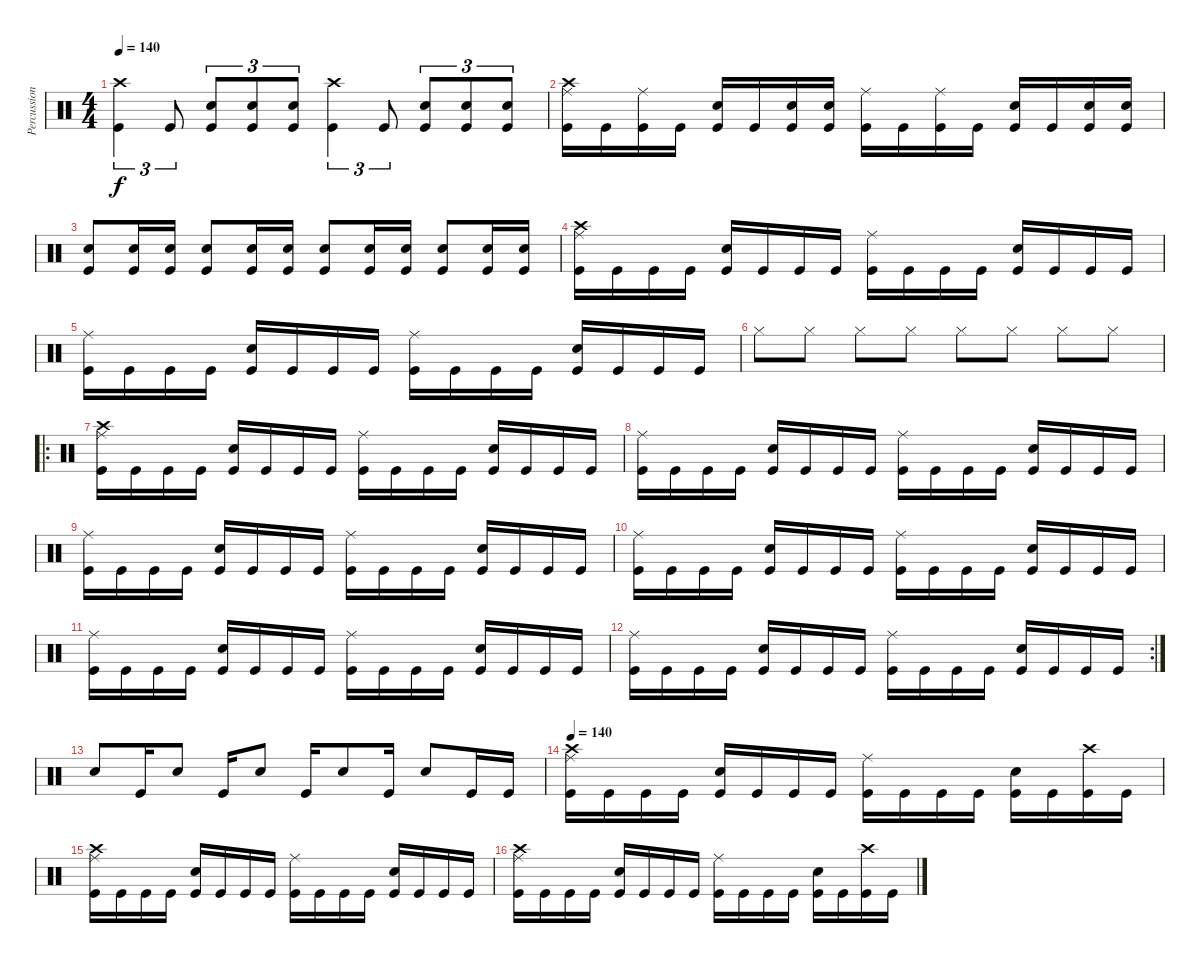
\track ("Percussion" "Percussion") {instrument percussion}
\staff {score}
\articulation defaults
\ts (4 4)
\tempo 140
\clef neutral
\ks c
("Crash high (hit)" "Kick (hit)").4{tu (3 2) dy f} "Kick (hit)".8{tu (3 2)} ("Snare (hit) 2" "Kick (hit)").8{tu (3 2)} ("Snare (hit) 2" "Kick (hit)").8{tu (3 2)} ("Snare (hit) 2" "Kick (hit)").8{tu (3 2)} ("Crash high (hit)" "Kick (hit)").4{tu (3 2)} "Kick (hit)".8{tu (3 2)} ("Snare (hit) 2" "Kick (hit)").8{tu (3 2)} ("Snare (hit) 2" "Kick (hit)").8{tu (3 2)} ("Snare (hit) 2" "Kick (hit)").8{tu (3 2)} |
("Ride (middle)" "Crash high (hit)" "Kick (hit)").16 "Kick (hit)".16 ("Ride (middle)" "Kick (hit)").16 "Kick (hit)".16 ("Snare (hit) 2" "Kick (hit)").16 "Kick (hit)".16 ("Snare (hit) 2" "Kick (hit)").16 ("Snare (hit) 2" "Kick (hit)").16 ("Ride (middle)" "Kick (hit)").16 "Kick (hit)".16 ("Ride (middle)" "Kick (hit)").16 "Kick (hit)".16 ("Snare (hit) 2" "Kick (hit)").16 "Kick (hit)".16 ("Snare (hit) 2" "Kick (hit)").16 ("Snare (hit) 2" "Kick (hit)").16 |
("Snare (hit) 2" "Kick (hit)").8 ("Snare (hit) 2" "Kick (hit)").16 ("Snare (hit) 2" "Kick (hit)").16 ("Snare (hit) 2" "Kick (hit)").8 ("Snare (hit) 2" "Kick (hit)").16 ("Snare (hit) 2" "Kick (hit)").16 ("Snare (hit) 2" "Kick (hit)").8 ("Snare (hit) 2" "Kick (hit)").16 ("Snare (hit) 2" "Kick (hit)").16 ("Snare (hit) 2" "Kick (hit)").8 ("Snare (hit) 2" "Kick (hit)").16 ("Snare (hit) 2" "Kick (hit)").16 |
("Ride (middle)" "Crash high (hit)" "Kick (hit)").16 "Kick (hit)".16 "Kick (hit)".16 "Kick (hit)".16 ("Snare (hit) 2" "Kick (hit)").16 "Kick (hit)".16 "Kick (hit)".16 "Kick (hit)".16 ("Ride (middle)" "Kick (hit)").16 "Kick (hit)".16 "Kick (hit)".16 "Kick (hit)".16 ("Snare (hit) 2" "Kick (hit)").16 "Kick (hit)".16 "Kick (hit)".16 "Kick (hit)".16 |
("Ride (middle)" "Kick (hit)").16 "Kick (hit)".16 "Kick (hit)".16 "Kick (hit)".16 ("Snare (hit) 2" "Kick (hit)").16 "Kick (hit)".16 "Kick (hit)".16 "Kick (hit)".16 ("Ride (middle)" "Kick (hit)").16 "Kick (hit)".16 "Kick (hit)".16 "Kick (hit)".16 ("Snare (hit) 2" "Kick (hit)").16 "Kick (hit)".16 "Kick (hit)".16 "Kick (hit)".16 |
"Hi-Hat (closed)".8 "Hi-Hat (closed)".8 "Hi-Hat (closed)".8 "Hi-Hat (closed)".8 "Hi-Hat (closed)".8 "Hi-Hat (closed)".8 "Hi-Hat (closed)".8 "Hi-Hat (closed)".8 |
\ro
("Ride (middle)" "Crash high (hit)" "Kick (hit)").16 "Kick (hit)".16 "Kick (hit)".16 "Kick (hit)".16 ("Snare (hit) 2" "Kick (hit)").16 "Kick (hit)".16 "Kick (hit)".16 "Kick (hit)".16 ("Ride (middle)" "Kick (hit)").16 "Kick (hit)".16 "Kick (hit)".16 "Kick (hit)".16 ("Snare (hit) 2" "Kick (hit)").16 "Kick (hit)".16 "Kick (hit)".16 "Kick (hit)".16 |
("Ride (middle)" "Kick (hit)").16 "Kick (hit)".16 "Kick (hit)".16 "Kick (hit)".16 ("Snare (hit) 2" "Kick (hit)").16 "Kick (hit)".16 "Kick (hit)".16 "Kick (hit)".16 ("Ride (middle)" "Kick (hit)").16 "Kick (hit)".16 "Kick (hit)".16 "Kick (hit)".16 ("Snare (hit) 2" "Kick (hit)").16 "Kick (hit)".16 "Kick (hit)".16 "Kick (hit)".16 |
("Ride (middle)" "Kick (hit)").16 "Kick (hit)".16 "Kick (hit)".16 "Kick (hit)".16 ("Snare (hit) 2" "Kick (hit)").16 "Kick (hit)".16 "Kick (hit)".16 "Kick (hit)".16 ("Ride (middle)" "Kick (hit)").16 "Kick (hit)".16 "Kick (hit)".16 "Kick (hit)".16 ("Snare (hit) 2" "Kick (hit)").16 "Kick (hit)".16 "Kick (hit)".16 "Kick (hit)".16 |
("Ride (middle)" "Kick (hit)").16 "Kick (hit)".16 "Kick (hit)".16 "Kick (hit)".16 ("Snare (hit) 2" "Kick (hit)").16 "Kick (hit)".16 "Kick (hit)".16 "Kick (hit)".16 ("Ride (middle)" "Kick (hit)").16 "Kick (hit)".16 "Kick (hit)".16 "Kick (hit)".16 ("Snare (hit) 2" "Kick (hit)").16 "Kick (hit)".16 "Kick (hit)".16 "Kick (hit)".16 |
("Ride (middle)" "Kick (hit)").16 "Kick (hit)".16 "Kick (hit)".16 "Kick (hit)".16 ("Snare (hit) 2" "Kick (hit)").16 "Kick (hit)".16 "Kick (hit)".16 "Kick (hit)".16 ("Ride (middle)" "Kick (hit)").16 "Kick (hit)".16 "Kick (hit)".16 "Kick (hit)".16 ("Snare (hit) 2" "Kick (hit)").16 "Kick (hit)".16 "Kick (hit)".16 "Kick (hit)".16 |
\rc 2
("Ride (middle)" "Kick (hit)").16 "Kick (hit)".16 "Kick (hit)".16 "Kick (hit)".16 ("Snare (hit) 2" "Kick (hit)").16 "Kick (hit)".16 "Kick (hit)".16 "Kick (hit)".16 ("Ride (middle)" "Kick (hit)").16 "Kick (hit)".16 "Kick (hit)".16 "Kick (hit)".16 ("Snare (hit) 2" "Kick (hit)").16 "Kick (hit)".16 "Kick (hit)".16 "Kick (hit)".16 |
"Snare (hit) 2".8 "Kick (hit)".16 "Snare (hit) 2".8 "Kick (hit)".16 "Snare (hit) 2".8 "Kick (hit)".16 "Snare (hit) 2".8 "Kick (hit)".16 "Snare (hit) 2".8 "Kick (hit)".16 "Kick (hit)".16 |
\tempo 140
("Ride (middle)" "Crash high (hit)" "Kick (hit)").16 "Kick (hit)".16 "Kick (hit)".16 "Kick (hit)".16 ("Snare (hit) 2" "Kick (hit)").16 "Kick (hit)".16 "Kick (hit)".16 "Kick (hit)".16 ("Ride (middle)" "Kick (hit)").16 "Kick (hit)".16 "Kick (hit)".16 "Kick (hit)".16 ("Snare (hit) 2" "Kick (hit)").16 "Kick (hit)".16 ("Crash high (hit)" "Kick (hit)").16 "Kick (hit)".16 |
("Ride (middle)" "Crash high (hit)" "Kick (hit)").16 "Kick (hit)".16 "Kick (hit)".16 "Kick (hit)".16 ("Snare (hit) 2" "Kick (hit)").16 "Kick (hit)".16 "Kick (hit)".16 "Kick (hit)".16 ("Ride (middle)" "Kick (hit)").16 "Kick (hit)".16 "Kick (hit)".16 "Kick (hit)".16 ("Snare (hit) 2" "Kick (hit)").16 "Kick (hit)".16 "Kick (hit)".16 "Kick (hit)".16 |
("Ride (middle)" "Crash high (hit)" "Kick (hit)").16 "Kick (hit)".16 "Kick (hit)".16 "Kick (hit)".16 ("Snare (hit) 2" "Kick (hit)").16 "Kick (hit)".16 "Kick (hit)".16 "Kick (hit)".16 ("Ride (middle)" "Kick (hit)").16 "Kick (hit)".16 "Kick (hit)".16 "Kick (hit)".16 ("Snare (hit) 2" "Kick (hit)").16 "Kick (hit)".16 ("Crash high (hit)" "Kick (hit)").16 "Kick (hit)".16
